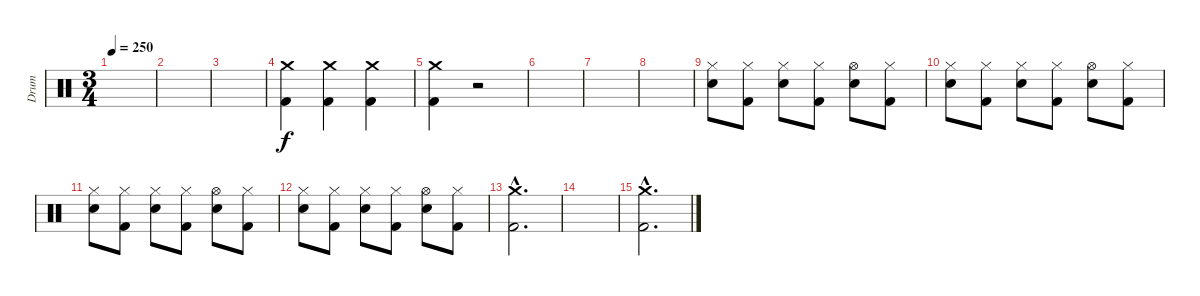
\track ("Drum" "Drum") {instrument percussion}
\staff {score}
\articulation defaults
\ts (3 4)
\tempo 250
\clef neutral
\ks c
|
|
|
("Crash medium (hit)" "Kick (hit) 2").4 ("Crash medium (hit)" "Kick (hit) 2").4 ("Crash medium (hit)" "Kick (hit) 2").4 |
("Crash medium (hit)" "Kick (hit) 2").4 r.2 |
|
|
|
("Hi-Hat (closed)" "Snare (hit) 2").8 ("Hi-Hat (closed)" "Kick (hit) 2").8 ("Hi-Hat (closed)" "Snare (hit) 2").8 ("Hi-Hat (closed)" "Kick (hit) 2").8 ("Hi-Hat (open)" "Snare (hit) 2").8 ("Hi-Hat (closed)" "Kick (hit) 2").8 |
("Hi-Hat (closed)" "Snare (hit) 2").8 ("Hi-Hat (closed)" "Kick (hit) 2").8 ("Hi-Hat (closed)" "Snare (hit) 2").8 ("Hi-Hat (closed)" "Kick (hit) 2").8 ("Hi-Hat (open)" "Snare (hit) 2").8 ("Hi-Hat (closed)" "Kick (hit) 2").8 |
("Hi-Hat (closed)" "Snare (hit) 2").8 ("Hi-Hat (closed)" "Kick (hit) 2").8 ("Hi-Hat (closed)" "Snare (hit) 2").8 ("Hi-Hat (closed)" "Kick (hit) 2").8 ("Hi-Hat (open)" "Snare (hit) 2").8 ("Hi-Hat (closed)" "Kick (hit) 2").8 |
("Hi-Hat (closed)" "Snare (hit) 2").8 ("Hi-Hat (closed)" "Kick (hit) 2").8 ("Hi-Hat (closed)" "Snare (hit) 2").8 ("Hi-Hat (closed)" "Kick (hit) 2").8 ("Hi-Hat (open)" "Snare (hit) 2").8 ("Hi-Hat (closed)" "Kick (hit) 2").8 |
("Crash medium (hit)"{hac} "Kick (hit) 2"{hac}).2{d} |
|
("Crash medium (hit)"{hac} "Kick (hit) 2"{hac}).2{d}
